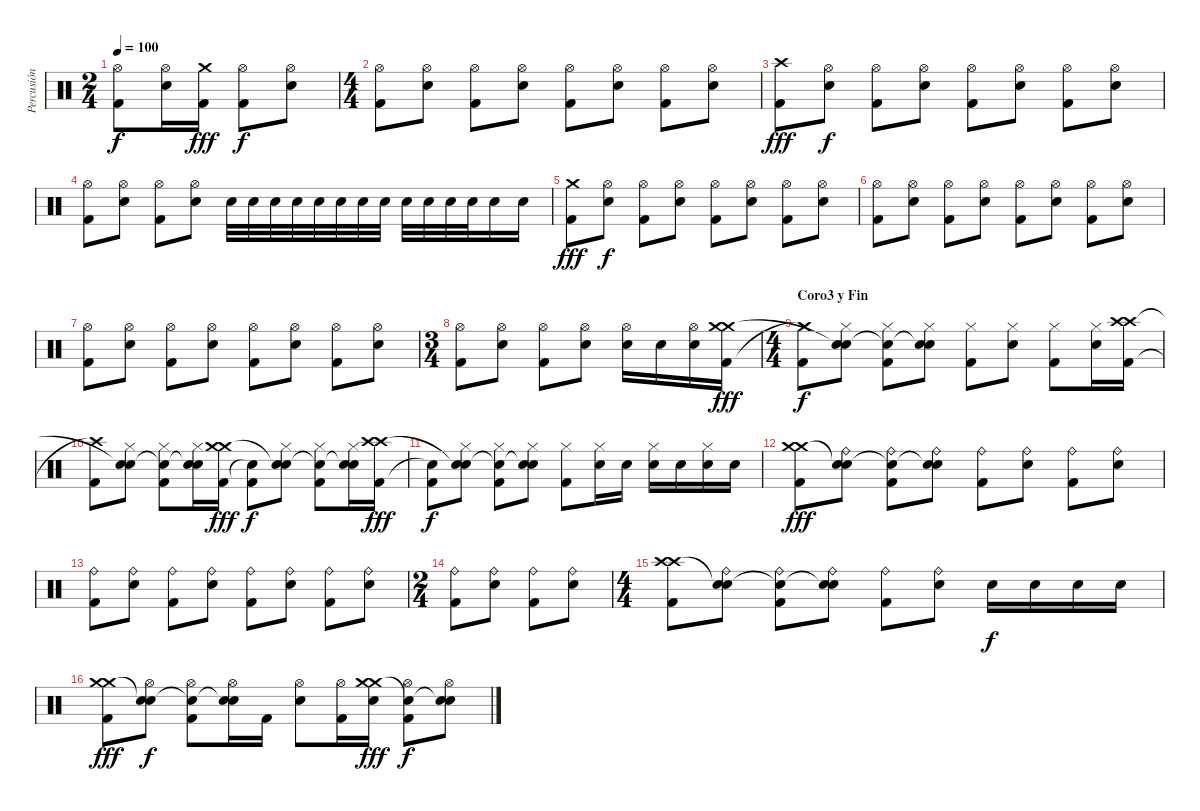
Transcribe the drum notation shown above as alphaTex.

\track ("Percusión" "Percusión") {instrument percussion}
\staff {score}
\articulation defaults
\ts (2 4)
\tempo 100
\clef neutral
\ks c
("Hi-Hat (open)" "Kick (hit) 2").8{dy f} ("Hi-Hat (open)" "Snare (hit) 2").16 ("Crash medium (hit)" "Kick (hit) 2").16{dy fff} ("Hi-Hat (open)" "Kick (hit) 2").8{dy f} ("Hi-Hat (open)" "Snare (hit) 2").8 |
\ts (4 4)
("Hi-Hat (open)" "Kick (hit) 2").8 ("Hi-Hat (open)" "Snare (hit) 2").8 ("Hi-Hat (open)" "Kick (hit) 2").8 ("Hi-Hat (open)" "Snare (hit) 2").8 ("Hi-Hat (open)" "Kick (hit) 2").8 ("Hi-Hat (open)" "Snare (hit) 2").8 ("Hi-Hat (open)" "Kick (hit) 2").8 ("Hi-Hat (open)" "Snare (hit) 2").8 |
("Crash high (hit)" "Kick (hit) 2").8{dy fff} ("Hi-Hat (open)" "Snare (hit) 2").8{dy f} ("Hi-Hat (open)" "Kick (hit) 2").8 ("Hi-Hat (open)" "Snare (hit) 2").8 ("Hi-Hat (open)" "Kick (hit) 2").8 ("Hi-Hat (open)" "Snare (hit) 2").8 ("Hi-Hat (open)" "Kick (hit) 2").8 ("Hi-Hat (open)" "Snare (hit) 2").8 |
("Hi-Hat (open)" "Kick (hit) 2").8 ("Hi-Hat (open)" "Snare (hit) 2").8 ("Hi-Hat (open)" "Kick (hit) 2").8 ("Hi-Hat (open)" "Snare (hit) 2").8 "Snare (hit) 2".32 "Snare (hit) 2".32 "Snare (hit) 2".32 "Snare (hit) 2".32 "Snare (hit) 2".32 "Snare (hit) 2".32 "Snare (hit) 2".32 "Snare (hit) 2".32 "Snare (hit) 2".32 "Snare (hit) 2".32 "Snare (hit) 2".32 "Snare (hit) 2".32 "Snare (hit) 2".16 "Snare (hit) 2".16 |
("Crash medium (hit)" "Kick (hit) 2").8{dy fff} ("Hi-Hat (open)" "Snare (hit) 2").8{dy f} ("Hi-Hat (open)" "Kick (hit) 2").8 ("Hi-Hat (open)" "Snare (hit) 2").8 ("Hi-Hat (open)" "Kick (hit) 2").8 ("Hi-Hat (open)" "Snare (hit) 2").8 ("Hi-Hat (open)" "Kick (hit) 2").8 ("Hi-Hat (open)" "Snare (hit) 2").8 |
("Hi-Hat (open)" "Kick (hit) 2").8 ("Hi-Hat (open)" "Snare (hit) 2").8 ("Hi-Hat (open)" "Kick (hit) 2").8 ("Hi-Hat (open)" "Snare (hit) 2").8 ("Hi-Hat (open)" "Kick (hit) 2").8 ("Hi-Hat (open)" "Snare (hit) 2").8 ("Hi-Hat (open)" "Kick (hit) 2").8 ("Hi-Hat (open)" "Snare (hit) 2").8 |
("Hi-Hat (open)" "Kick (hit) 2").8 ("Hi-Hat (open)" "Snare (hit) 2").8 ("Hi-Hat (open)" "Kick (hit) 2").8 ("Hi-Hat (open)" "Snare (hit) 2").8 ("Hi-Hat (open)" "Kick (hit) 2").8 ("Hi-Hat (open)" "Snare (hit) 2").8 ("Hi-Hat (open)" "Kick (hit) 2").8 ("Hi-Hat (open)" "Snare (hit) 2").8 |
\ts (3 4)
("Hi-Hat (open)" "Kick (hit) 2").8 ("Hi-Hat (open)" "Snare (hit) 2").8 ("Hi-Hat (open)" "Kick (hit) 2").8 ("Hi-Hat (open)" "Snare (hit) 2").8 ("Hi-Hat (open)" "Snare (hit) 2").16 "Snare (hit) 2".16 ("Hi-Hat (open)" "Snare (hit) 2").16 ("Crash medium (hit)" "Kick (hit) 2" "Crash medium (hit)").16{dy fff} |
\ts (4 4)
\section ("" "Coro3 y Fin")
("Kick (hit) 2" "Crash medium (hit)"{t}).8{dy f} ("Hi-Hat (closed)" "Snare (hit) 2" "Snare (hit)"{t}).8 ("Hi-Hat (closed)" "Kick (hit) 2" "Snare (hit)"{t}).8 ("Hi-Hat (closed)" "Snare (hit) 2" "Snare (hit)"{t}).8 ("Hi-Hat (closed)" "Kick (hit) 2").8 ("Hi-Hat (closed)" "Snare (hit) 2").8 ("Hi-Hat (closed)" "Kick (hit) 2").8 ("Hi-Hat (closed)" "Snare (hit) 2").16 ("Crash high (hit)" "Kick (hit) 2" "Crash high (hit)").16 |
("Kick (hit) 2" "Crash high (hit)"{t}).8 ("Hi-Hat (closed)" "Snare (hit) 2" "Snare (hit)"{t}).8 ("Hi-Hat (closed)" "Kick (hit) 2" "Snare (hit)"{t}).8 ("Hi-Hat (closed)" "Snare (hit) 2" "Snare (hit)"{t}).16 ("Crash medium (hit)" "Kick (hit) 2" "Crash medium (hit)").16{dy fff} ("Kick (hit) 2" "Snare (hit)"{t}).8{dy f} ("Hi-Hat (closed)" "Snare (hit) 2" "Snare (hit)"{t}).8 ("Hi-Hat (closed)" "Kick (hit) 2" "Snare (hit)"{t}).8 ("Hi-Hat (closed)" "Snare (hit) 2" "Snare (hit)"{t}).16 ("Crash high (hit)" "Kick (hit) 2" "Crash high (hit)").16{dy fff} |
("Kick (hit) 2" "Snare (hit)"{t}).8{dy f} ("Hi-Hat (closed)" "Snare (hit) 2" "Snare (hit)"{t}).8 ("Hi-Hat (closed)" "Kick (hit) 2" "Snare (hit)"{t}).8 ("Hi-Hat (closed)" "Snare (hit) 2" "Snare (hit)"{t}).8 ("Hi-Hat (closed)" "Kick (hit) 2").8 ("Hi-Hat (closed)" "Snare (hit) 2").16 "Snare (hit) 2".16 ("Hi-Hat (closed)" "Snare (hit) 2").16 "Snare (hit) 2".16 ("Hi-Hat (closed)" "Snare (hit) 2").16 "Snare (hit) 2".16 |
("Crash medium (hit)" "Kick (hit) 2" "Crash medium (hit)").8{dy fff} ("Ride (bell)" "Snare (hit) 2" "Snare (hit)"{t}).8 ("Ride (bell)" "Kick (hit) 2" "Snare (hit)"{t}).8 ("Ride (bell)" "Snare (hit) 2" "Snare (hit)"{t}).8 ("Ride (bell)" "Kick (hit) 2").8 ("Ride (bell)" "Snare (hit) 2").8 ("Ride (bell)" "Kick (hit) 2").8 ("Ride (bell)" "Snare (hit) 2").8 |
("Ride (bell)" "Kick (hit) 2").8 ("Ride (bell)" "Snare (hit) 2").8 ("Ride (bell)" "Kick (hit) 2").8 ("Ride (bell)" "Snare (hit) 2").8 ("Ride (bell)" "Kick (hit) 2").8 ("Ride (bell)" "Snare (hit) 2").8 ("Ride (bell)" "Kick (hit) 2").8 ("Ride (bell)" "Snare (hit) 2").8 |
\ts (2 4)
("Ride (bell)" "Kick (hit) 2").8 ("Ride (bell)" "Snare (hit) 2").8 ("Ride (bell)" "Kick (hit) 2").8 ("Ride (bell)" "Snare (hit) 2").8 |
\ts (4 4)
("Crash high (hit)" "Kick (hit) 2" "Crash high (hit)").8 ("Ride (bell)" "Snare (hit) 2" "Snare (hit)"{t}).8 ("Ride (bell)" "Kick (hit) 2" "Snare (hit)"{t}).8 ("Ride (bell)" "Snare (hit) 2" "Snare (hit)"{t}).8 ("Ride (bell)" "Kick (hit) 2").8 ("Ride (bell)" "Snare (hit) 2").8 "Snare (hit) 2".16{dy f} "Snare (hit) 2".16 "Snare (hit) 2".16 "Snare (hit) 2".16 |
("Crash medium (hit)" "Kick (hit) 2" "Crash medium (hit)").8{dy fff} ("Hi-Hat (open)" "Snare (hit) 2" "Snare (hit)"{t}).8{dy f} ("Hi-Hat (open)" "Kick (hit) 2" "Snare (hit)"{t}).8 ("Hi-Hat (open)" "Snare (hit) 2" "Snare (hit)"{t}).16 "Kick (hit) 2".16 ("Hi-Hat (open)" "Snare (hit) 2").8 ("Hi-Hat (open)" "Kick (hit) 2").16 ("Crash medium (hit)" "Snare (hit) 2" "Crash medium (hit)").16{dy fff} ("Hi-Hat (open)" "Kick (hit) 2" "Snare (hit)"{t}).8{dy f} ("Hi-Hat (open)" "Snare (hit) 2" "Snare (hit)"{t}).8
